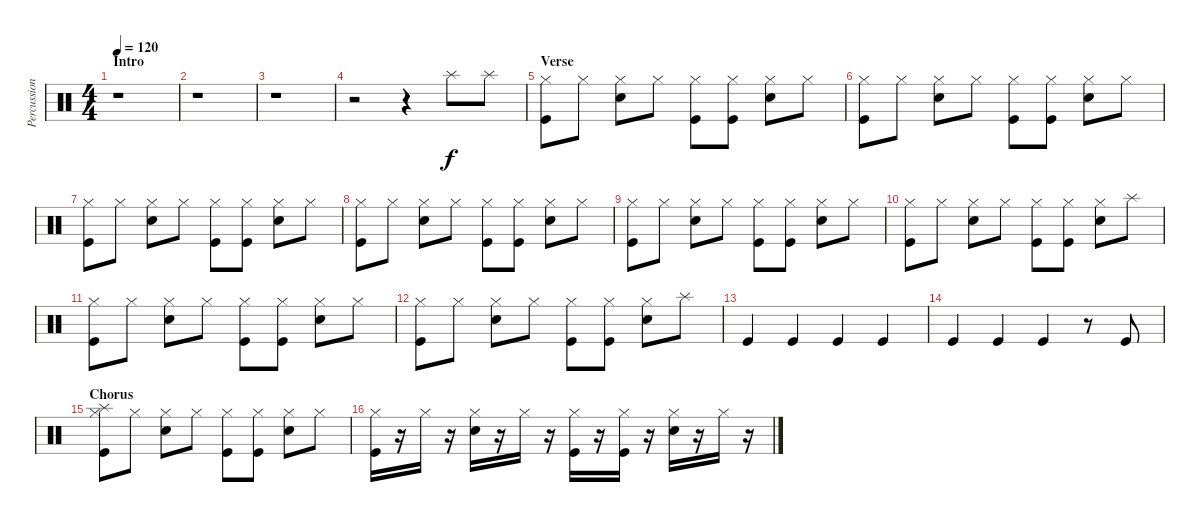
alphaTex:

\track ("Percussion" "Percussion") {instrument percussion}
\staff {score}
\articulation defaults
\ts (4 4)
\section ("" "Intro")
\tempo 120
\clef neutral
\ks c
r.1{dy f} |
r.1 |
r.1 |
r.2 r.4 "Splash (hit)".8 "Splash (hit)".8 |
\section ("" "Verse")
("Hi-Hat (closed)" "Kick (hit)").8 "Hi-Hat (closed)".8 ("Hi-Hat (closed)" "Snare (hit) 2").8 "Hi-Hat (closed)".8 ("Hi-Hat (closed)" "Kick (hit)").8 ("Hi-Hat (closed)" "Kick (hit)").8 ("Hi-Hat (closed)" "Snare (hit) 2").8 "Hi-Hat (closed)".8 |
("Hi-Hat (closed)" "Kick (hit)").8 "Hi-Hat (closed)".8 ("Hi-Hat (closed)" "Snare (hit) 2").8 "Hi-Hat (closed)".8 ("Hi-Hat (closed)" "Kick (hit)").8 ("Hi-Hat (closed)" "Kick (hit)").8 ("Hi-Hat (closed)" "Snare (hit) 2").8 "Hi-Hat (closed)".8 |
("Hi-Hat (closed)" "Kick (hit)").8 "Hi-Hat (closed)".8 ("Hi-Hat (closed)" "Snare (hit) 2").8 "Hi-Hat (closed)".8 ("Hi-Hat (closed)" "Kick (hit)").8 ("Hi-Hat (closed)" "Kick (hit)").8 ("Hi-Hat (closed)" "Snare (hit) 2").8 "Hi-Hat (closed)".8 |
("Hi-Hat (closed)" "Kick (hit)").8 "Hi-Hat (closed)".8 ("Hi-Hat (closed)" "Snare (hit) 2").8 "Hi-Hat (closed)".8 ("Hi-Hat (closed)" "Kick (hit)").8 ("Hi-Hat (closed)" "Kick (hit)").8 ("Hi-Hat (closed)" "Snare (hit) 2").8 "Hi-Hat (closed)".8 |
("Hi-Hat (closed)" "Kick (hit)").8 "Hi-Hat (closed)".8 ("Hi-Hat (closed)" "Snare (hit) 2").8 "Hi-Hat (closed)".8 ("Hi-Hat (closed)" "Kick (hit)").8 ("Hi-Hat (closed)" "Kick (hit)").8 ("Hi-Hat (closed)" "Snare (hit) 2").8 "Hi-Hat (closed)".8 |
("Hi-Hat (closed)" "Kick (hit)").8 "Hi-Hat (closed)".8 ("Hi-Hat (closed)" "Snare (hit) 2").8 "Hi-Hat (closed)".8 ("Hi-Hat (closed)" "Kick (hit)").8 ("Hi-Hat (closed)" "Kick (hit)").8 ("Hi-Hat (closed)" "Snare (hit) 2").8 "Splash (hit)".8 |
("Hi-Hat (closed)" "Kick (hit)").8 "Hi-Hat (closed)".8 ("Hi-Hat (closed)" "Snare (hit) 2").8 "Hi-Hat (closed)".8 ("Hi-Hat (closed)" "Kick (hit)").8 ("Hi-Hat (closed)" "Kick (hit)").8 ("Hi-Hat (closed)" "Snare (hit) 2").8 "Hi-Hat (closed)".8 |
("Hi-Hat (closed)" "Kick (hit)").8 "Hi-Hat (closed)".8 ("Hi-Hat (closed)" "Snare (hit) 2").8 "Hi-Hat (closed)".8 ("Hi-Hat (closed)" "Kick (hit)").8 ("Hi-Hat (closed)" "Kick (hit)").8 ("Hi-Hat (closed)" "Snare (hit) 2").8 "Splash (hit)".8 |
"Kick (hit)".4 "Kick (hit)".4 "Kick (hit)".4 "Kick (hit)".4 |
"Kick (hit)".4 "Kick (hit)".4 "Kick (hit)".4 r.8 "Kick (hit)".8 |
\section ("" "Chorus")
("Hi-Hat (closed)" "Kick (hit)" "Splash (hit)").8 "Hi-Hat (closed)".8 ("Hi-Hat (closed)" "Snare (hit) 2").8 "Hi-Hat (closed)".8 ("Hi-Hat (closed)" "Kick (hit)").8 ("Hi-Hat (closed)" "Kick (hit)").8 ("Hi-Hat (closed)" "Snare (hit) 2").8 "Hi-Hat (closed)".8 |
("Hi-Hat (closed)" "Kick (hit)").16 r.16 "Hi-Hat (closed)".16 r.16 ("Hi-Hat (closed)" "Snare (hit) 2").16 r.16 "Hi-Hat (closed)".16 r.16 ("Hi-Hat (closed)" "Kick (hit)").16 r.16 ("Hi-Hat (closed)" "Kick (hit)").16 r.16 ("Hi-Hat (closed)" "Snare (hit) 2").16 r.16 "Hi-Hat (closed)".16 r.16
